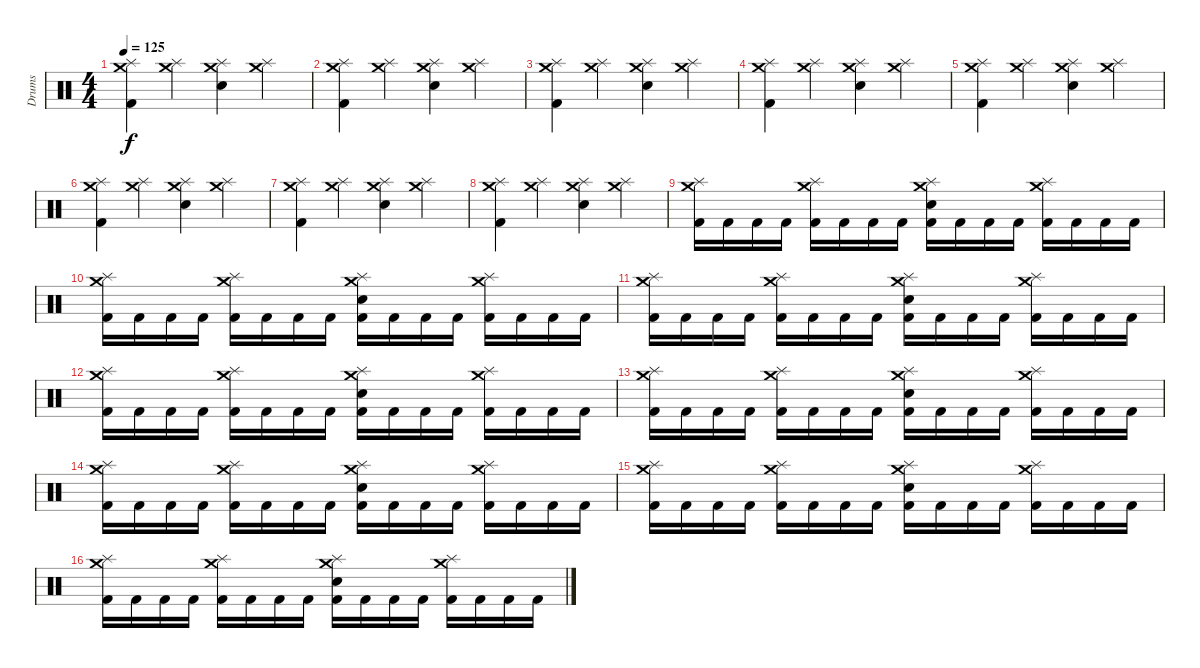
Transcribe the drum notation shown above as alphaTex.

\track ("Drums" "Drums") {instrument percussion}
\staff {score}
\articulation defaults
\ts (4 4)
\tempo 125
\clef neutral
\ks c
("Crash medium (hit)" "Splash (hit)" "Kick (hit) 2").4{dy f} ("Crash medium (hit)" "Splash (hit)").4 ("Crash medium (hit)" "Splash (hit)" "Snare (hit) 2").4 ("Crash medium (hit)" "Splash (hit)").4 |
("Crash medium (hit)" "Splash (hit)" "Kick (hit) 2").4 ("Crash medium (hit)" "Splash (hit)").4 ("Crash medium (hit)" "Splash (hit)" "Snare (hit) 2").4 ("Crash medium (hit)" "Splash (hit)").4 |
("Crash medium (hit)" "Splash (hit)" "Kick (hit) 2").4 ("Crash medium (hit)" "Splash (hit)").4 ("Crash medium (hit)" "Splash (hit)" "Snare (hit) 2").4 ("Crash medium (hit)" "Splash (hit)").4 |
("Crash medium (hit)" "Splash (hit)" "Kick (hit) 2").4 ("Crash medium (hit)" "Splash (hit)").4 ("Crash medium (hit)" "Splash (hit)" "Snare (hit) 2").4 ("Crash medium (hit)" "Splash (hit)").4 |
("Crash medium (hit)" "Splash (hit)" "Kick (hit) 2").4 ("Crash medium (hit)" "Splash (hit)").4 ("Crash medium (hit)" "Splash (hit)" "Snare (hit) 2").4 ("Crash medium (hit)" "Splash (hit)").4 |
("Crash medium (hit)" "Splash (hit)" "Kick (hit) 2").4 ("Crash medium (hit)" "Splash (hit)").4 ("Crash medium (hit)" "Splash (hit)" "Snare (hit) 2").4 ("Crash medium (hit)" "Splash (hit)").4 |
("Crash medium (hit)" "Splash (hit)" "Kick (hit) 2").4 ("Crash medium (hit)" "Splash (hit)").4 ("Crash medium (hit)" "Splash (hit)" "Snare (hit) 2").4 ("Crash medium (hit)" "Splash (hit)").4 |
("Crash medium (hit)" "Splash (hit)" "Kick (hit) 2").4 ("Crash medium (hit)" "Splash (hit)").4 ("Crash medium (hit)" "Splash (hit)" "Snare (hit) 2").4 ("Crash medium (hit)" "Splash (hit)").4 |
("Crash medium (hit)" "Splash (hit)" "Kick (hit) 2").16 "Kick (hit) 2".16 "Kick (hit) 2".16 "Kick (hit) 2".16 ("Crash medium (hit)" "Splash (hit)" "Kick (hit) 2").16 "Kick (hit) 2".16 "Kick (hit) 2".16 "Kick (hit) 2".16 ("Crash medium (hit)" "Splash (hit)" "Snare (hit) 2" "Kick (hit) 2").16 "Kick (hit) 2".16 "Kick (hit) 2".16 "Kick (hit) 2".16 ("Crash medium (hit)" "Splash (hit)" "Kick (hit) 2").16 "Kick (hit) 2".16 "Kick (hit) 2".16 "Kick (hit) 2".16 |
("Crash medium (hit)" "Splash (hit)" "Kick (hit) 2").16 "Kick (hit) 2".16 "Kick (hit) 2".16 "Kick (hit) 2".16 ("Crash medium (hit)" "Splash (hit)" "Kick (hit) 2").16 "Kick (hit) 2".16 "Kick (hit) 2".16 "Kick (hit) 2".16 ("Crash medium (hit)" "Splash (hit)" "Snare (hit) 2" "Kick (hit) 2").16 "Kick (hit) 2".16 "Kick (hit) 2".16 "Kick (hit) 2".16 ("Crash medium (hit)" "Splash (hit)" "Kick (hit) 2").16 "Kick (hit) 2".16 "Kick (hit) 2".16 "Kick (hit) 2".16 |
("Crash medium (hit)" "Splash (hit)" "Kick (hit) 2").16 "Kick (hit) 2".16 "Kick (hit) 2".16 "Kick (hit) 2".16 ("Crash medium (hit)" "Splash (hit)" "Kick (hit) 2").16 "Kick (hit) 2".16 "Kick (hit) 2".16 "Kick (hit) 2".16 ("Crash medium (hit)" "Splash (hit)" "Snare (hit) 2" "Kick (hit) 2").16 "Kick (hit) 2".16 "Kick (hit) 2".16 "Kick (hit) 2".16 ("Crash medium (hit)" "Splash (hit)" "Kick (hit) 2").16 "Kick (hit) 2".16 "Kick (hit) 2".16 "Kick (hit) 2".16 |
("Crash medium (hit)" "Splash (hit)" "Kick (hit) 2").16 "Kick (hit) 2".16 "Kick (hit) 2".16 "Kick (hit) 2".16 ("Crash medium (hit)" "Splash (hit)" "Kick (hit) 2").16 "Kick (hit) 2".16 "Kick (hit) 2".16 "Kick (hit) 2".16 ("Crash medium (hit)" "Splash (hit)" "Snare (hit) 2" "Kick (hit) 2").16 "Kick (hit) 2".16 "Kick (hit) 2".16 "Kick (hit) 2".16 ("Crash medium (hit)" "Splash (hit)" "Kick (hit) 2").16 "Kick (hit) 2".16 "Kick (hit) 2".16 "Kick (hit) 2".16 |
("Crash medium (hit)" "Splash (hit)" "Kick (hit) 2").16 "Kick (hit) 2".16 "Kick (hit) 2".16 "Kick (hit) 2".16 ("Crash medium (hit)" "Splash (hit)" "Kick (hit) 2").16 "Kick (hit) 2".16 "Kick (hit) 2".16 "Kick (hit) 2".16 ("Crash medium (hit)" "Splash (hit)" "Snare (hit) 2" "Kick (hit) 2").16 "Kick (hit) 2".16 "Kick (hit) 2".16 "Kick (hit) 2".16 ("Crash medium (hit)" "Splash (hit)" "Kick (hit) 2").16 "Kick (hit) 2".16 "Kick (hit) 2".16 "Kick (hit) 2".16 |
("Crash medium (hit)" "Splash (hit)" "Kick (hit) 2").16 "Kick (hit) 2".16 "Kick (hit) 2".16 "Kick (hit) 2".16 ("Crash medium (hit)" "Splash (hit)" "Kick (hit) 2").16 "Kick (hit) 2".16 "Kick (hit) 2".16 "Kick (hit) 2".16 ("Crash medium (hit)" "Splash (hit)" "Snare (hit) 2" "Kick (hit) 2").16 "Kick (hit) 2".16 "Kick (hit) 2".16 "Kick (hit) 2".16 ("Crash medium (hit)" "Splash (hit)" "Kick (hit) 2").16 "Kick (hit) 2".16 "Kick (hit) 2".16 "Kick (hit) 2".16 |
("Crash medium (hit)" "Splash (hit)" "Kick (hit) 2").16 "Kick (hit) 2".16 "Kick (hit) 2".16 "Kick (hit) 2".16 ("Crash medium (hit)" "Splash (hit)" "Kick (hit) 2").16 "Kick (hit) 2".16 "Kick (hit) 2".16 "Kick (hit) 2".16 ("Crash medium (hit)" "Splash (hit)" "Snare (hit) 2" "Kick (hit) 2").16 "Kick (hit) 2".16 "Kick (hit) 2".16 "Kick (hit) 2".16 ("Crash medium (hit)" "Splash (hit)" "Kick (hit) 2").16 "Kick (hit) 2".16 "Kick (hit) 2".16 "Kick (hit) 2".16 |
("Crash medium (hit)" "Splash (hit)" "Kick (hit) 2").16 "Kick (hit) 2".16 "Kick (hit) 2".16 "Kick (hit) 2".16 ("Crash medium (hit)" "Splash (hit)" "Kick (hit) 2").16 "Kick (hit) 2".16 "Kick (hit) 2".16 "Kick (hit) 2".16 ("Crash medium (hit)" "Splash (hit)" "Snare (hit) 2" "Kick (hit) 2").16 "Kick (hit) 2".16 "Kick (hit) 2".16 "Kick (hit) 2".16 ("Crash medium (hit)" "Splash (hit)" "Kick (hit) 2").16 "Kick (hit) 2".16 "Kick (hit) 2".16 "Kick (hit) 2".16
